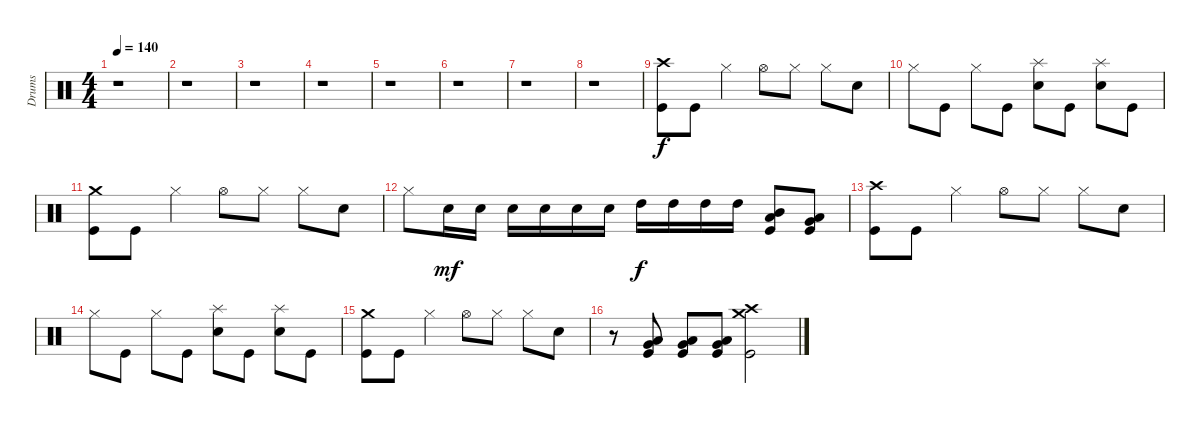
\track ("Drums" "Drums") {instrument percussion}
\staff {score}
\articulation defaults
\ts (4 4)
\tempo 140
\clef neutral
\ks c
r.1{dy f} |
r.1 |
r.1 |
r.1 |
r.1 |
r.1 |
r.1 |
r.1 |
("Crash high (hit)" "Kick (hit)").8 "Kick (hit)".8 "Hi-Hat (closed)".4 "Hi-Hat (open)".8 "Hi-Hat (closed)".8 "Hi-Hat (closed)".8 "Electric Snare (hit)".8 |
"Hi-Hat (closed)".8 "Kick (hit)".8 "Hi-Hat (closed)".8 "Kick (hit)".8 ("Splash (hit)" "Electric Snare (hit)").8 "Kick (hit)".8 ("Splash (hit)" "Electric Snare (hit)").8 "Kick (hit)".8 |
("Crash medium (hit)" "Kick (hit)").8 "Kick (hit)".8 "Hi-Hat (closed)".4 "Hi-Hat (open)".8 "Hi-Hat (closed)".8 "Hi-Hat (closed)".8 "Electric Snare (hit)".8 |
"Hi-Hat (closed)".8 "Electric Snare (hit)".16{dy mf} "Electric Snare (hit)".16 "Electric Snare (hit)".16 "Electric Snare (hit)".16 "Electric Snare (hit)".16 "Electric Snare (hit)".16 "High Tom (hit)".16{dy f} "High Tom (hit)".16 "High Tom (hit)".16 "High Tom (hit)".16 ("Mid Tom (hit)" "Low Tom (hit)" "Kick (hit)").8 ("Low Tom (hit)" "Very Low Tom (hit)" "Kick (hit)").8 |
("Crash high (hit)" "Kick (hit)").8 "Kick (hit)".8 "Hi-Hat (closed)".4 "Hi-Hat (open)".8 "Hi-Hat (closed)".8 "Hi-Hat (closed)".8 "Electric Snare (hit)".8 |
"Hi-Hat (closed)".8 "Kick (hit)".8 "Hi-Hat (closed)".8 "Kick (hit)".8 ("Splash (hit)" "Electric Snare (hit)").8 "Kick (hit)".8 ("Splash (hit)" "Electric Snare (hit)").8 "Kick (hit)".8 |
("Crash medium (hit)" "Kick (hit)").8 "Kick (hit)".8 "Hi-Hat (closed)".4 "Hi-Hat (open)".8 "Hi-Hat (closed)".8 "Hi-Hat (closed)".8 "Electric Snare (hit)".8 |
r.8 ("Very Low Tom (hit)" "Low Floor Tom (hit)" "Kick (hit)").8 ("Very Low Tom (hit)" "Low Floor Tom (hit)" "Kick (hit)").8 ("Very Low Tom (hit)" "Low Floor Tom (hit)" "Kick (hit)").8 ("Crash medium (hit)" "Crash high (hit)" "Kick (hit)").2
